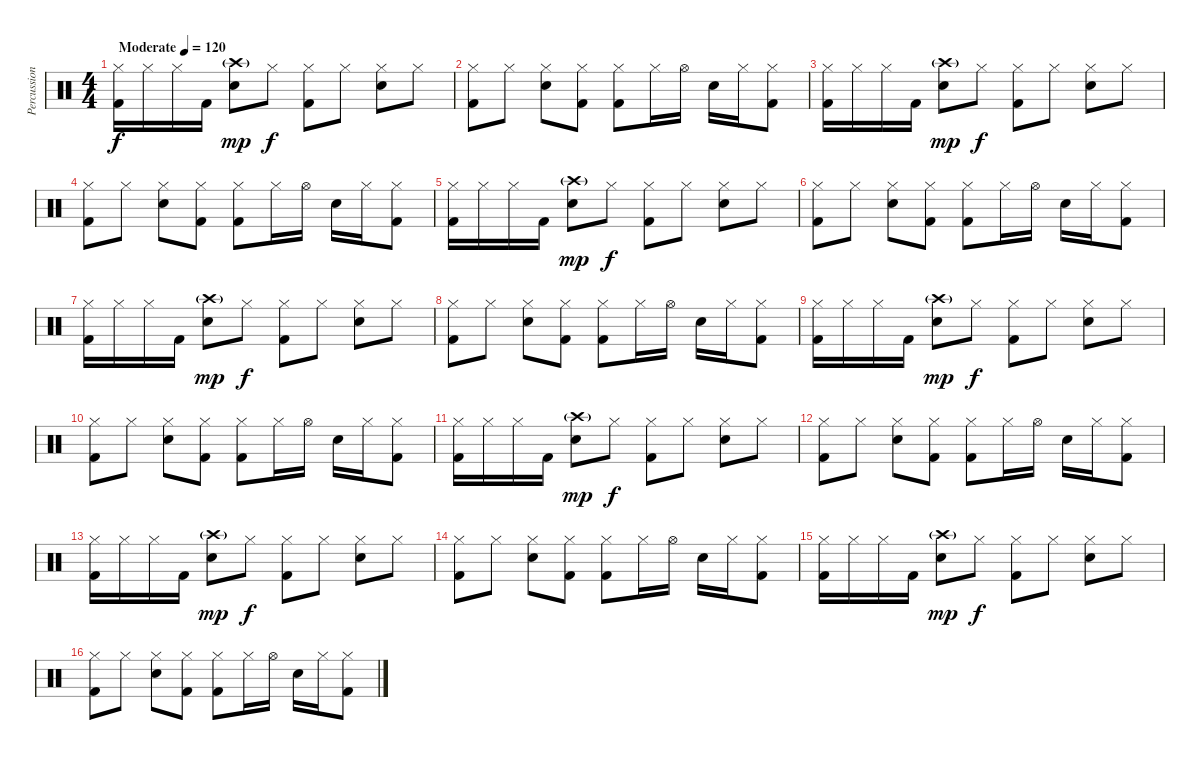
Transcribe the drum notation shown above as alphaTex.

\track ("Percussions" "Percussion") {instrument percussion}
\staff {score}
\articulation defaults
\ts (4 4)
\tempo (120 "Moderate")
\clef neutral
\ks c
("Hi-Hat (closed)" "Kick (hit) 2").16{dy f} "Hi-Hat (closed)".16 "Hi-Hat (closed)".16 "Kick (hit) 2".16 ("Crash high (hit)"{g} "Snare (hit) 2").8{dy mp} "Hi-Hat (closed)".8{dy f} ("Hi-Hat (closed)" "Kick (hit) 2").8 "Hi-Hat (closed)".8 ("Hi-Hat (closed)" "Snare (hit) 2").8 "Hi-Hat (closed)".8 |
("Hi-Hat (closed)" "Kick (hit) 2").8 "Hi-Hat (closed)".8 ("Hi-Hat (closed)" "Snare (hit) 2").8 ("Hi-Hat (closed)" "Kick (hit) 2").8 ("Hi-Hat (closed)" "Kick (hit) 2").8 "Hi-Hat (closed)".16 "Hi-Hat (open)".16 "Snare (hit) 2".16 "Hi-Hat (closed)".16 ("Hi-Hat (closed)" "Kick (hit) 2").8 |
("Hi-Hat (closed)" "Kick (hit) 2").16 "Hi-Hat (closed)".16 "Hi-Hat (closed)".16 "Kick (hit) 2".16 ("Crash high (hit)"{g} "Snare (hit) 2").8{dy mp} "Hi-Hat (closed)".8{dy f} ("Hi-Hat (closed)" "Kick (hit) 2").8 "Hi-Hat (closed)".8 ("Hi-Hat (closed)" "Snare (hit) 2").8 "Hi-Hat (closed)".8 |
("Hi-Hat (closed)" "Kick (hit) 2").8 "Hi-Hat (closed)".8 ("Hi-Hat (closed)" "Snare (hit) 2").8 ("Hi-Hat (closed)" "Kick (hit) 2").8 ("Hi-Hat (closed)" "Kick (hit) 2").8 "Hi-Hat (closed)".16 "Hi-Hat (open)".16 "Snare (hit) 2".16 "Hi-Hat (closed)".16 ("Hi-Hat (closed)" "Kick (hit) 2").8 |
("Hi-Hat (closed)" "Kick (hit) 2").16 "Hi-Hat (closed)".16 "Hi-Hat (closed)".16 "Kick (hit) 2".16 ("Crash high (hit)"{g} "Snare (hit) 2").8{dy mp} "Hi-Hat (closed)".8{dy f} ("Hi-Hat (closed)" "Kick (hit) 2").8 "Hi-Hat (closed)".8 ("Hi-Hat (closed)" "Snare (hit) 2").8 "Hi-Hat (closed)".8 |
("Hi-Hat (closed)" "Kick (hit) 2").8 "Hi-Hat (closed)".8 ("Hi-Hat (closed)" "Snare (hit) 2").8 ("Hi-Hat (closed)" "Kick (hit) 2").8 ("Hi-Hat (closed)" "Kick (hit) 2").8 "Hi-Hat (closed)".16 "Hi-Hat (open)".16 "Snare (hit) 2".16 "Hi-Hat (closed)".16 ("Hi-Hat (closed)" "Kick (hit) 2").8 |
("Hi-Hat (closed)" "Kick (hit) 2").16 "Hi-Hat (closed)".16 "Hi-Hat (closed)".16 "Kick (hit) 2".16 ("Crash high (hit)"{g} "Snare (hit) 2").8{dy mp} "Hi-Hat (closed)".8{dy f} ("Hi-Hat (closed)" "Kick (hit) 2").8 "Hi-Hat (closed)".8 ("Hi-Hat (closed)" "Snare (hit) 2").8 "Hi-Hat (closed)".8 |
("Hi-Hat (closed)" "Kick (hit) 2").8 "Hi-Hat (closed)".8 ("Hi-Hat (closed)" "Snare (hit) 2").8 ("Hi-Hat (closed)" "Kick (hit) 2").8 ("Hi-Hat (closed)" "Kick (hit) 2").8 "Hi-Hat (closed)".16 "Hi-Hat (open)".16 "Snare (hit) 2".16 "Hi-Hat (closed)".16 ("Hi-Hat (closed)" "Kick (hit) 2").8 |
("Hi-Hat (closed)" "Kick (hit) 2").16 "Hi-Hat (closed)".16 "Hi-Hat (closed)".16 "Kick (hit) 2".16 ("Crash high (hit)"{g} "Snare (hit) 2").8{dy mp} "Hi-Hat (closed)".8{dy f} ("Hi-Hat (closed)" "Kick (hit) 2").8 "Hi-Hat (closed)".8 ("Hi-Hat (closed)" "Snare (hit) 2").8 "Hi-Hat (closed)".8 |
("Hi-Hat (closed)" "Kick (hit) 2").8 "Hi-Hat (closed)".8 ("Hi-Hat (closed)" "Snare (hit) 2").8 ("Hi-Hat (closed)" "Kick (hit) 2").8 ("Hi-Hat (closed)" "Kick (hit) 2").8 "Hi-Hat (closed)".16 "Hi-Hat (open)".16 "Snare (hit) 2".16 "Hi-Hat (closed)".16 ("Hi-Hat (closed)" "Kick (hit) 2").8 |
("Hi-Hat (closed)" "Kick (hit) 2").16 "Hi-Hat (closed)".16 "Hi-Hat (closed)".16 "Kick (hit) 2".16 ("Crash high (hit)"{g} "Snare (hit) 2").8{dy mp} "Hi-Hat (closed)".8{dy f} ("Hi-Hat (closed)" "Kick (hit) 2").8 "Hi-Hat (closed)".8 ("Hi-Hat (closed)" "Snare (hit) 2").8 "Hi-Hat (closed)".8 |
("Hi-Hat (closed)" "Kick (hit) 2").8 "Hi-Hat (closed)".8 ("Hi-Hat (closed)" "Snare (hit) 2").8 ("Hi-Hat (closed)" "Kick (hit) 2").8 ("Hi-Hat (closed)" "Kick (hit) 2").8 "Hi-Hat (closed)".16 "Hi-Hat (open)".16 "Snare (hit) 2".16 "Hi-Hat (closed)".16 ("Hi-Hat (closed)" "Kick (hit) 2").8 |
("Hi-Hat (closed)" "Kick (hit) 2").16 "Hi-Hat (closed)".16 "Hi-Hat (closed)".16 "Kick (hit) 2".16 ("Crash high (hit)"{g} "Snare (hit) 2").8{dy mp} "Hi-Hat (closed)".8{dy f} ("Hi-Hat (closed)" "Kick (hit) 2").8 "Hi-Hat (closed)".8 ("Hi-Hat (closed)" "Snare (hit) 2").8 "Hi-Hat (closed)".8 |
("Hi-Hat (closed)" "Kick (hit) 2").8 "Hi-Hat (closed)".8 ("Hi-Hat (closed)" "Snare (hit) 2").8 ("Hi-Hat (closed)" "Kick (hit) 2").8 ("Hi-Hat (closed)" "Kick (hit) 2").8 "Hi-Hat (closed)".16 "Hi-Hat (open)".16 "Snare (hit) 2".16 "Hi-Hat (closed)".16 ("Hi-Hat (closed)" "Kick (hit) 2").8 |
("Hi-Hat (closed)" "Kick (hit) 2").16 "Hi-Hat (closed)".16 "Hi-Hat (closed)".16 "Kick (hit) 2".16 ("Crash high (hit)"{g} "Snare (hit) 2").8{dy mp} "Hi-Hat (closed)".8{dy f} ("Hi-Hat (closed)" "Kick (hit) 2").8 "Hi-Hat (closed)".8 ("Hi-Hat (closed)" "Snare (hit) 2").8 "Hi-Hat (closed)".8 |
("Hi-Hat (closed)" "Kick (hit) 2").8 "Hi-Hat (closed)".8 ("Hi-Hat (closed)" "Snare (hit) 2").8 ("Hi-Hat (closed)" "Kick (hit) 2").8 ("Hi-Hat (closed)" "Kick (hit) 2").8 "Hi-Hat (closed)".16 "Hi-Hat (open)".16 "Snare (hit) 2".16 "Hi-Hat (closed)".16 ("Hi-Hat (closed)" "Kick (hit) 2").8
